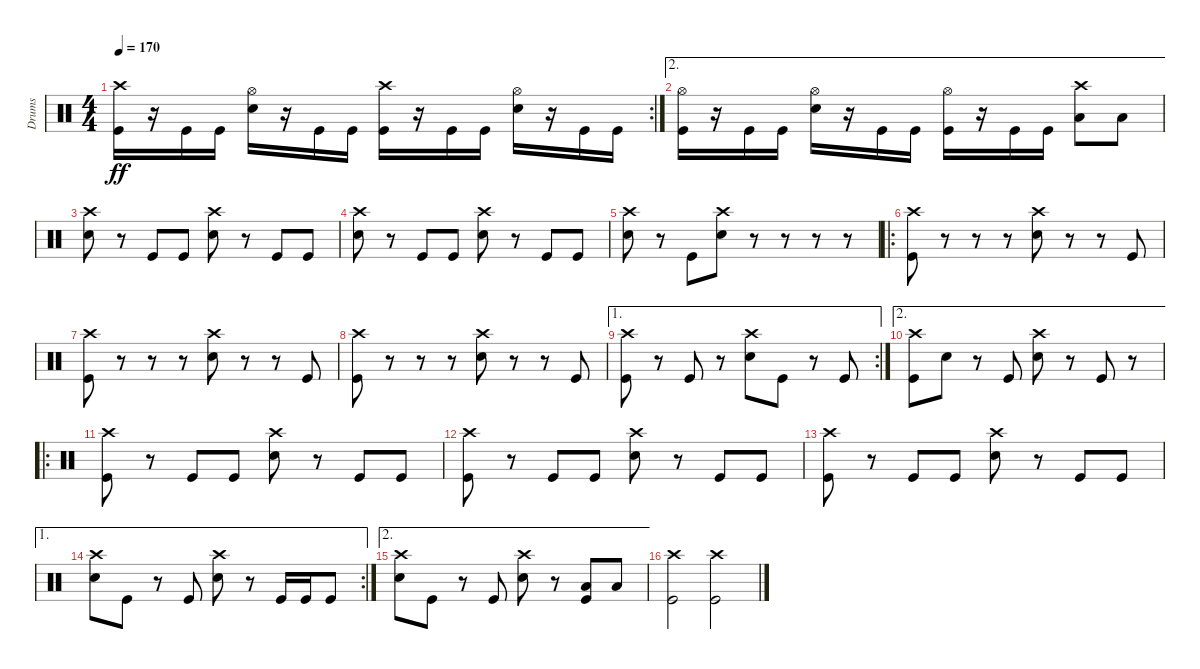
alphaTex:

\track ("Drums" "Drums") {instrument percussion}
\staff {score}
\articulation defaults
\rc 2
\ts (4 4)
\tempo 170
\clef neutral
\ks c
("Crash high (hit)" "Kick (hit)").16{dy ff} r.16 "Kick (hit)".16 "Kick (hit)".16 ("Hi-Hat (open)" "Snare (hit) 2").16 r.16 "Kick (hit)".16 "Kick (hit)".16 ("Crash high (hit)" "Kick (hit)").16 r.16 "Kick (hit)".16 "Kick (hit)".16 ("Hi-Hat (open)" "Snare (hit) 2").16 r.16 "Kick (hit)".16 "Kick (hit)".16 |
\ae 2
("Hi-Hat (open)" "Kick (hit)").16 r.16 "Kick (hit)".16 "Kick (hit)".16 ("Hi-Hat (open)" "Snare (hit) 2").16 r.16 "Kick (hit)".16 "Kick (hit)".16 ("Hi-Hat (open)" "Kick (hit)").16 r.16 "Kick (hit)".16 "Kick (hit)".16 ("Crash high (hit)" "Low Floor Tom (hit)").8 "Low Floor Tom (hit)".8 |
("Crash high (hit)" "Snare (hit) 2").8 r.8 "Kick (hit)".8 "Kick (hit)".8 ("Crash high (hit)" "Snare (hit) 2").8 r.8 "Kick (hit)".8 "Kick (hit)".8 |
("Crash high (hit)" "Snare (hit) 2").8 r.8 "Kick (hit)".8 "Kick (hit)".8 ("Crash high (hit)" "Snare (hit) 2").8 r.8 "Kick (hit)".8 "Kick (hit)".8 |
("Crash high (hit)" "Snare (hit) 2").8 r.8 "Kick (hit)".8 ("Crash high (hit)" "Snare (hit) 2").8 r.8 r.8 r.8 r.8 |
\ro
("Crash high (hit)" "Kick (hit)").8 r.8 r.8 r.8 ("Crash high (hit)" "Snare (hit) 2").8 r.8 r.8 "Kick (hit)".8 |
("Crash high (hit)" "Kick (hit)").8 r.8 r.8 r.8 ("Crash high (hit)" "Snare (hit) 2").8 r.8 r.8 "Kick (hit)".8 |
("Crash high (hit)" "Kick (hit)").8 r.8 r.8 r.8 ("Crash high (hit)" "Snare (hit) 2").8 r.8 r.8 "Kick (hit)".8 |
\ae 1
\rc 2
("Crash high (hit)" "Kick (hit)").8 r.8 "Kick (hit)".8 r.8 ("Crash high (hit)" "Snare (hit) 2").8 "Kick (hit)".8 r.8 "Kick (hit)".8 |
\ae 2
("Crash high (hit)" "Kick (hit)").8 "Snare (hit) 2".8 r.8 "Kick (hit)".8 ("Crash high (hit)" "Snare (hit) 2").8 r.8 "Kick (hit)".8 r.8 |
\ro
("Crash high (hit)" "Kick (hit)").8 r.8 "Kick (hit)".8 "Kick (hit)".8 ("Crash high (hit)" "Snare (hit) 2").8 r.8 "Kick (hit)".8 "Kick (hit)".8 |
("Crash high (hit)" "Kick (hit)").8 r.8 "Kick (hit)".8 "Kick (hit)".8 ("Crash high (hit)" "Snare (hit) 2").8 r.8 "Kick (hit)".8 "Kick (hit)".8 |
("Crash high (hit)" "Kick (hit)").8 r.8 "Kick (hit)".8 "Kick (hit)".8 ("Crash high (hit)" "Snare (hit) 2").8 r.8 "Kick (hit)".8 "Kick (hit)".8 |
\ae 1
\rc 2
("Crash high (hit)" "Snare (hit) 2").8 "Kick (hit)".8 r.8 "Kick (hit)".8 ("Crash high (hit)" "Snare (hit) 2").8 r.8 "Kick (hit)".16 "Kick (hit)".16 "Kick (hit)".8 |
\ae 2
("Crash high (hit)" "Snare (hit) 2").8 "Kick (hit)".8 r.8 "Kick (hit)".8 ("Crash high (hit)" "Snare (hit) 2").8 r.8 ("Low Floor Tom (hit)" "Kick (hit)").8 "Low Floor Tom (hit)".8 |
("Crash high (hit)" "Kick (hit)").2 ("Crash high (hit)" "Kick (hit)").2
